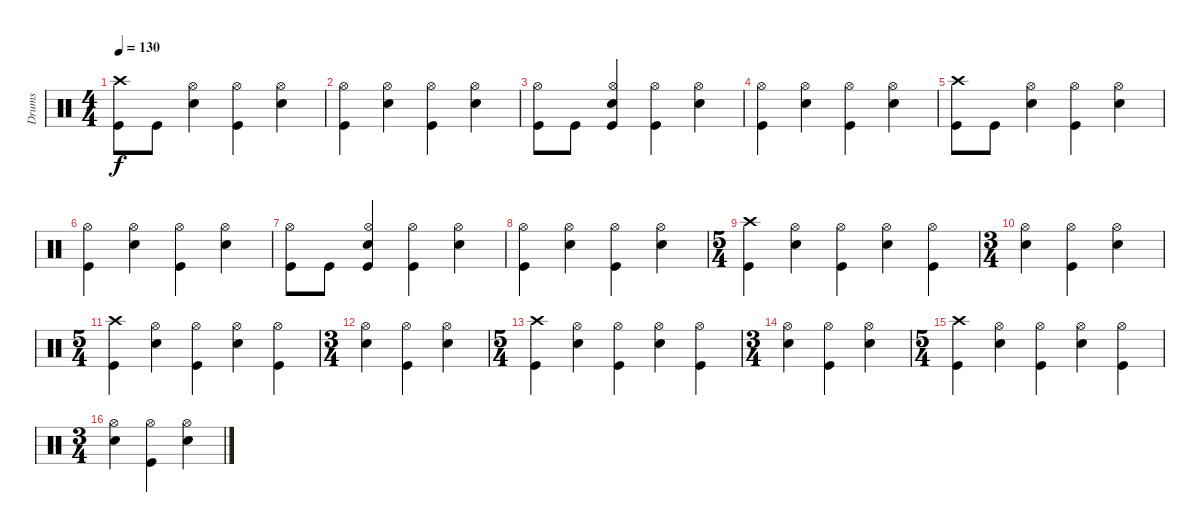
\track ("Drums" "Drums") {instrument percussion}
\staff {score}
\articulation defaults
\ts (4 4)
\tempo 130
\clef neutral
\ks c
("Crash high (hit)" "Kick (hit)").8{dy f} "Kick (hit)".8 ("Hi-Hat (open)" "Snare (hit) 2").4 ("Hi-Hat (open)" "Kick (hit)").4 ("Hi-Hat (open)" "Snare (hit) 2").4 |
("Hi-Hat (open)" "Kick (hit)").4 ("Hi-Hat (open)" "Snare (hit) 2").4 ("Hi-Hat (open)" "Kick (hit)").4 ("Hi-Hat (open)" "Snare (hit) 2").4 |
("Hi-Hat (open)" "Kick (hit)").8 "Kick (hit)".8 ("Hi-Hat (open)" "Snare (hit) 2" "Kick (hit)").4 ("Hi-Hat (open)" "Kick (hit)").4 ("Hi-Hat (open)" "Snare (hit) 2").4 |
("Hi-Hat (open)" "Kick (hit)").4 ("Hi-Hat (open)" "Snare (hit) 2").4 ("Hi-Hat (open)" "Kick (hit)").4 ("Hi-Hat (open)" "Snare (hit) 2").4 |
("Crash high (hit)" "Kick (hit)").8 "Kick (hit)".8 ("Hi-Hat (open)" "Snare (hit) 2").4 ("Hi-Hat (open)" "Kick (hit)").4 ("Hi-Hat (open)" "Snare (hit) 2").4 |
("Hi-Hat (open)" "Kick (hit)").4 ("Hi-Hat (open)" "Snare (hit) 2").4 ("Hi-Hat (open)" "Kick (hit)").4 ("Hi-Hat (open)" "Snare (hit) 2").4 |
("Hi-Hat (open)" "Kick (hit)").8 "Kick (hit)".8 ("Hi-Hat (open)" "Snare (hit) 2" "Kick (hit)").4 ("Hi-Hat (open)" "Kick (hit)").4 ("Hi-Hat (open)" "Snare (hit) 2").4 |
("Hi-Hat (open)" "Kick (hit)").4 ("Hi-Hat (open)" "Snare (hit) 2").4 ("Hi-Hat (open)" "Kick (hit)").4 ("Hi-Hat (open)" "Snare (hit) 2").4 |
\ts (5 4)
("Crash high (hit)" "Kick (hit)").4 ("Hi-Hat (open)" "Snare (hit) 2").4 ("Hi-Hat (open)" "Kick (hit)").4 ("Hi-Hat (open)" "Snare (hit) 2").4 ("Hi-Hat (open)" "Kick (hit)").4 |
\ts (3 4)
("Hi-Hat (open)" "Snare (hit) 2").4 ("Hi-Hat (open)" "Kick (hit)").4 ("Hi-Hat (open)" "Snare (hit) 2").4 |
\ts (5 4)
("Crash high (hit)" "Kick (hit)").4 ("Hi-Hat (open)" "Snare (hit) 2").4 ("Hi-Hat (open)" "Kick (hit)").4 ("Hi-Hat (open)" "Snare (hit) 2").4 ("Hi-Hat (open)" "Kick (hit)").4 |
\ts (3 4)
("Hi-Hat (open)" "Snare (hit) 2").4 ("Hi-Hat (open)" "Kick (hit)").4 ("Hi-Hat (open)" "Snare (hit) 2").4 |
\ts (5 4)
("Crash high (hit)" "Kick (hit)").4 ("Hi-Hat (open)" "Snare (hit) 2").4 ("Hi-Hat (open)" "Kick (hit)").4 ("Hi-Hat (open)" "Snare (hit) 2").4 ("Hi-Hat (open)" "Kick (hit)").4 |
\ts (3 4)
("Hi-Hat (open)" "Snare (hit) 2").4 ("Hi-Hat (open)" "Kick (hit)").4 ("Hi-Hat (open)" "Snare (hit) 2").4 |
\ts (5 4)
("Crash high (hit)" "Kick (hit)").4 ("Hi-Hat (open)" "Snare (hit) 2").4 ("Hi-Hat (open)" "Kick (hit)").4 ("Hi-Hat (open)" "Snare (hit) 2").4 ("Hi-Hat (open)" "Kick (hit)").4 |
\ts (3 4)
("Hi-Hat (open)" "Snare (hit) 2").4 ("Hi-Hat (open)" "Kick (hit)").4 ("Hi-Hat (open)" "Snare (hit) 2").4
